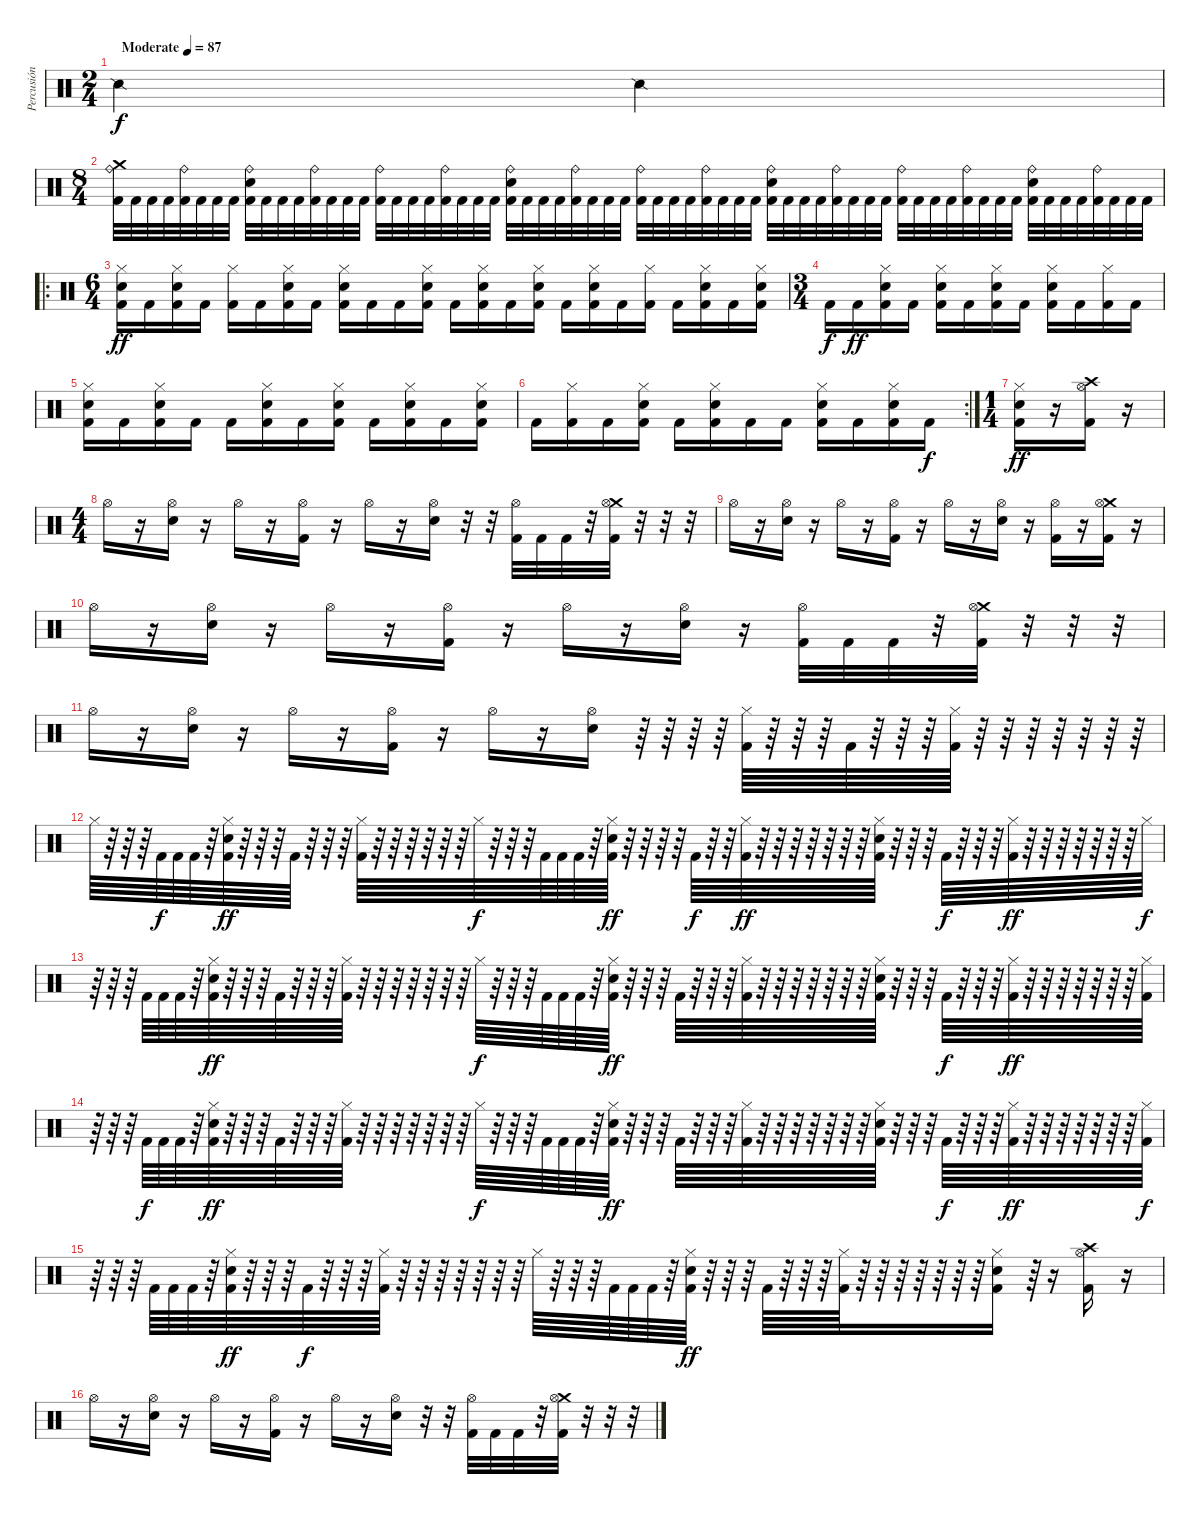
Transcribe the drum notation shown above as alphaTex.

\track ("Percusión" "Percusión") {instrument percussion}
\staff {score}
\articulation defaults
\ts (2 4)
\tempo (87 "Moderate")
\clef neutral
\ks c "Snare (side stick) 2".4{dy f} "Snare (side stick) 2".4
|
\ts (8 4)
("Crash medium (hit)" "Ride (bell)" "Kick (hit) 2").32 "Kick (hit) 2".32 "Kick (hit) 2".32 "Kick (hit) 2".32 ("Ride (bell)" "Kick (hit) 2").32 "Kick (hit) 2".32 "Kick (hit) 2".32 "Kick (hit) 2".32 ("Ride (bell)" "Electric Snare (hit)" "Kick (hit) 2").32 "Kick (hit) 2".32 "Kick (hit) 2".32 "Kick (hit) 2".32 ("Ride (bell)" "Kick (hit) 2").32 "Kick (hit) 2".32 "Kick (hit) 2".32 "Kick (hit) 2".32 ("Ride (bell)" "Kick (hit) 2").32 "Kick (hit) 2".32 "Kick (hit) 2".32 "Kick (hit) 2".32 ("Ride (bell)" "Kick (hit) 2").32 "Kick (hit) 2".32 "Kick (hit) 2".32 "Kick (hit) 2".32 ("Ride (bell)" "Electric Snare (hit)" "Kick (hit) 2").32 "Kick (hit) 2".32 "Kick (hit) 2".32 "Kick (hit) 2".32 ("Ride (bell)" "Kick (hit) 2").32 "Kick (hit) 2".32 "Kick (hit) 2".32 "Kick (hit) 2".32 ("Ride (bell)" "Kick (hit) 2").32 "Kick (hit) 2".32 "Kick (hit) 2".32 "Kick (hit) 2".32 ("Ride (bell)" "Kick (hit) 2").32 "Kick (hit) 2".32 "Kick (hit) 2".32 "Kick (hit) 2".32 ("Ride (bell)" "Electric Snare (hit)" "Kick (hit) 2").32 "Kick (hit) 2".32 "Kick (hit) 2".32 "Kick (hit) 2".32 ("Ride (bell)" "Kick (hit) 2").32 "Kick (hit) 2".32 "Kick (hit) 2".32 "Kick (hit) 2".32 ("Ride (bell)" "Kick (hit) 2").32 "Kick (hit) 2".32 "Kick (hit) 2".32 "Kick (hit) 2".32 ("Ride (bell)" "Kick (hit) 2").32 "Kick (hit) 2".32 "Kick (hit) 2".32 "Kick (hit) 2".32 ("Ride (bell)" "Electric Snare (hit)" "Kick (hit) 2").32 "Kick (hit) 2".32 "Kick (hit) 2".32 "Kick (hit) 2".32 ("Ride (bell)" "Kick (hit) 2").32 "Kick (hit) 2".32 "Kick (hit) 2".32 "Kick (hit) 2".32 |
\ro
\ts (6 4)
("Hi-Hat (closed)" "Electric Snare (hit)" "Kick (hit) 2").16{dy ff} "Kick (hit) 2".16 ("Hi-Hat (closed)" "Electric Snare (hit)" "Kick (hit) 2").16 "Kick (hit) 2".16 ("Hi-Hat (closed)" "Kick (hit) 2").16 "Kick (hit) 2".16 ("Hi-Hat (closed)" "Electric Snare (hit)" "Kick (hit) 2").16 "Kick (hit) 2".16 ("Hi-Hat (closed)" "Electric Snare (hit)" "Kick (hit) 2").16 "Kick (hit) 2".16 "Kick (hit) 2".16 ("Hi-Hat (closed)" "Electric Snare (hit)" "Kick (hit) 2").16 "Kick (hit) 2".16 ("Hi-Hat (closed)" "Electric Snare (hit)" "Kick (hit) 2").16 "Kick (hit) 2".16 ("Hi-Hat (closed)" "Electric Snare (hit)" "Kick (hit) 2").16 "Kick (hit) 2".16 ("Hi-Hat (closed)" "Electric Snare (hit)" "Kick (hit) 2").16 "Kick (hit) 2".16 ("Hi-Hat (closed)" "Kick (hit) 2").16 "Kick (hit) 2".16 ("Hi-Hat (closed)" "Electric Snare (hit)" "Kick (hit) 2").16 "Kick (hit) 2".16 ("Hi-Hat (closed)" "Electric Snare (hit)" "Kick (hit) 2").16 |
\ts (3 4)
"Kick (hit) 2".16{dy f} "Kick (hit) 2".16{dy ff} ("Hi-Hat (closed)" "Electric Snare (hit)" "Kick (hit) 2").16 "Kick (hit) 2".16 ("Hi-Hat (closed)" "Electric Snare (hit)" "Kick (hit) 2").16 "Kick (hit) 2".16 ("Hi-Hat (closed)" "Electric Snare (hit)" "Kick (hit) 2").16 "Kick (hit) 2".16 ("Hi-Hat (closed)" "Electric Snare (hit)" "Kick (hit) 2").16 "Kick (hit) 2".16 ("Hi-Hat (closed)" "Kick (hit) 2").16 "Kick (hit) 2".16 |
("Hi-Hat (closed)" "Electric Snare (hit)" "Kick (hit) 2").16 "Kick (hit) 2".16 ("Hi-Hat (closed)" "Electric Snare (hit)" "Kick (hit) 2").16 "Kick (hit) 2".16 "Kick (hit) 2".16 ("Hi-Hat (closed)" "Electric Snare (hit)" "Kick (hit) 2").16 "Kick (hit) 2".16 ("Hi-Hat (closed)" "Electric Snare (hit)" "Kick (hit) 2").16 "Kick (hit) 2".16 ("Hi-Hat (closed)" "Electric Snare (hit)" "Kick (hit) 2").16 "Kick (hit) 2".16 ("Hi-Hat (closed)" "Electric Snare (hit)" "Kick (hit) 2").16 |
\rc 2 "Kick (hit) 2".16
("Hi-Hat (closed)" "Kick (hit) 2").16 "Kick (hit) 2".16 ("Hi-Hat (closed)" "Electric Snare (hit)" "Kick (hit) 2").16 "Kick (hit) 2".16 ("Hi-Hat (closed)" "Electric Snare (hit)" "Kick (hit) 2").16 "Kick (hit) 2".16 "Kick (hit) 2".16 ("Hi-Hat (closed)" "Electric Snare (hit)" "Kick (hit) 2").16 "Kick (hit) 2".16 ("Hi-Hat (closed)" "Electric Snare (hit)" "Kick (hit) 2").16 "Kick (hit) 2".16{dy f} |
\ts (1 4)
("Hi-Hat (closed)" "Electric Snare (hit)" "Kick (hit) 2").16{dy ff} r.16 ("Crash high (hit)" "Hi-Hat (open)" "Kick (hit) 2").16 r.16 |
\ts (4 4)
"Hi-Hat (open)".16 r.16 ("Hi-Hat (open)" "Electric Snare (hit)").16 r.16 "Hi-Hat (open)".16 r.16 ("Hi-Hat (open)" "Kick (hit) 2").16 r.16 "Hi-Hat (open)".16 r.16 ("Hi-Hat (open)" "Electric Snare (hit)").16 r.32 r.32 ("Hi-Hat (open)" "Kick (hit) 2").32 "Kick (hit) 2".32 "Kick (hit) 2".32 r.32 ("Crash medium (hit)" "Hi-Hat (open)" "Kick (hit) 2").32 r.32 r.32 r.32 |
"Hi-Hat (open)".16 r.16 ("Hi-Hat (open)" "Electric Snare (hit)").16 r.16 "Hi-Hat (open)".16 r.16 ("Hi-Hat (open)" "Kick (hit) 2").16 r.16 "Hi-Hat (open)".16 r.16 ("Hi-Hat (open)" "Electric Snare (hit)").16 r.16 ("Hi-Hat (open)" "Kick (hit) 2").16 r.16 ("Crash medium (hit)" "Hi-Hat (open)" "Kick (hit) 2").16 r.16 |
"Hi-Hat (open)".16 r.16 ("Hi-Hat (open)" "Electric Snare (hit)").16 r.16 "Hi-Hat (open)".16 r.16 ("Hi-Hat (open)" "Kick (hit) 2").16 r.16 "Hi-Hat (open)".16 r.16 ("Hi-Hat (open)" "Electric Snare (hit)").16 r.16 ("Hi-Hat (open)" "Kick (hit) 2").32 "Kick (hit) 2".32 "Kick (hit) 2".32 r.32 ("Crash medium (hit)" "Hi-Hat (open)" "Kick (hit) 2").32 r.32 r.32 r.32 |
"Hi-Hat (open)".16 r.16 ("Hi-Hat (open)" "Electric Snare (hit)").16 r.16 "Hi-Hat (open)".16 r.16 ("Hi-Hat (open)" "Kick (hit) 2").16 r.16 "Hi-Hat (open)".16 r.16 ("Hi-Hat (open)" "Electric Snare (hit)").16 r.64 r.64 r.64 r.64 ("Hi-Hat (closed)" "Kick (hit) 2").64 r.64 r.64 r.64 "Kick (hit) 2".64 r.64 r.64 r.64 ("Hi-Hat (closed)" "Kick (hit) 2").64 r.64 r.64 r.64 r.64 r.64 r.64 r.64 |
"Hi-Hat (closed)".64 r.64 r.64 r.64 "Kick (hit) 2".64{dy f} "Kick (hit) 2".64 "Kick (hit) 2".64 r.64 ("Hi-Hat (closed)" "Electric Snare (hit)" "Kick (hit) 2").64{dy ff} r.64 r.64 r.64 "Kick (hit) 2".64 r.64 r.64 r.64 ("Hi-Hat (closed)" "Kick (hit) 2").64 r.64 r.64 r.64 r.64 r.64 r.64 "Hi-Hat (closed)".64{dy f} r.64 r.64 r.64 "Kick (hit) 2".64 "Kick (hit) 2".64 "Kick (hit) 2".64 r.64 ("Hi-Hat (closed)" "Electric Snare (hit)" "Kick (hit) 2").64{dy ff} r.64 r.64 r.64 r.64 "Kick (hit) 2".64{dy f} r.64 r.64 ("Hi-Hat (closed)" "Kick (hit) 2").64{dy ff} r.64 r.64 r.64 r.64 r.64 r.64 r.64 ("Hi-Hat (closed)" "Electric Snare (hit)" "Kick (hit) 2").64 r.64 r.64 r.64 "Kick (hit) 2".64{dy f} r.64 r.64 r.64 ("Hi-Hat (closed)" "Kick (hit) 2").64{dy ff} r.64 r.64 r.64 r.64 r.64 r.64 r.64 "Hi-Hat (closed)".64{dy f} |
r.64 r.64 r.64 "Kick (hit) 2".64 "Kick (hit) 2".64 "Kick (hit) 2".64 r.64 ("Hi-Hat (closed)" "Electric Snare (hit)" "Kick (hit) 2").64{dy ff} r.64 r.64 r.64 "Kick (hit) 2".64 r.64 r.64 r.64 ("Hi-Hat (closed)" "Kick (hit) 2").64 r.64 r.64 r.64 r.64 r.64 r.64 r.64 "Hi-Hat (closed)".64{dy f} r.64 r.64 r.64 "Kick (hit) 2".64 "Kick (hit) 2".64 "Kick (hit) 2".64 r.64 ("Hi-Hat (closed)" "Electric Snare (hit)" "Kick (hit) 2").64{dy ff} r.64 r.64 r.64 "Kick (hit) 2".64 r.64 r.64 r.64 ("Hi-Hat (closed)" "Kick (hit) 2").64 r.64 r.64 r.64 r.64 r.64 r.64 r.64 ("Hi-Hat (closed)" "Electric Snare (hit)" "Kick (hit) 2").64 r.64 r.64 r.64 "Kick (hit) 2".64{dy f} r.64 r.64 r.64 ("Hi-Hat (closed)" "Kick (hit) 2").64{dy ff} r.64 r.64 r.64 r.64 r.64 r.64 r.64 ("Hi-Hat (closed)" "Kick (hit) 2").64 |
r.64 r.64 r.64 "Kick (hit) 2".64{dy f} "Kick (hit) 2".64 "Kick (hit) 2".64 r.64 ("Hi-Hat (closed)" "Electric Snare (hit)" "Kick (hit) 2").64{dy ff} r.64 r.64 r.64 "Kick (hit) 2".64 r.64 r.64 r.64 ("Hi-Hat (closed)" "Kick (hit) 2").64 r.64 r.64 r.64 r.64 r.64 r.64 r.64 "Hi-Hat (closed)".64{dy f} r.64 r.64 r.64 "Kick (hit) 2".64 "Kick (hit) 2".64 "Kick (hit) 2".64 r.64 ("Hi-Hat (closed)" "Electric Snare (hit)" "Kick (hit) 2").64{dy ff} r.64 r.64 r.64 "Kick (hit) 2".64 r.64 r.64 r.64 ("Hi-Hat (closed)" "Kick (hit) 2").64 r.64 r.64 r.64 r.64 r.64 r.64 r.64 ("Hi-Hat (closed)" "Electric Snare (hit)" "Kick (hit) 2").64 r.64 r.64 r.64 "Kick (hit) 2".64{dy f} r.64 r.64 r.64 ("Hi-Hat (closed)" "Kick (hit) 2").64{dy ff} r.64 r.64 r.64 r.64 r.64 r.64 r.64 ("Hi-Hat (closed)" "Kick (hit) 2").64{dy f} |
r.64 r.64 r.64 "Kick (hit) 2".64 "Kick (hit) 2".64 "Kick (hit) 2".64 r.64 ("Hi-Hat (closed)" "Electric Snare (hit)" "Kick (hit) 2").64{dy ff} r.64 r.64 r.64 "Kick (hit) 2".64{dy f} r.64 r.64 r.64 ("Hi-Hat (closed)" "Kick (hit) 2").64 r.64 r.64 r.64 r.64 r.64 r.64 r.64 "Hi-Hat (closed)".64 r.64 r.64 r.64 "Kick (hit) 2".64 "Kick (hit) 2".64 "Kick (hit) 2".64 r.64 ("Hi-Hat (closed)" "Electric Snare (hit)" "Kick (hit) 2").64{dy ff} r.64 r.64 r.64 "Kick (hit) 2".64 r.64 r.64 r.64 ("Hi-Hat (closed)" "Kick (hit) 2").64 r.64 r.64 r.64 r.64 r.64 r.64 r.64 ("Hi-Hat (closed)" "Electric Snare (hit)" "Kick (hit) 2").16 r.64 r.16 ("Crash high (hit)" "Hi-Hat (open)" "Kick (hit) 2").16 r.16 |
"Hi-Hat (open)".16 r.16 ("Hi-Hat (open)" "Electric Snare (hit)").16 r.16 "Hi-Hat (open)".16 r.16 ("Hi-Hat (open)" "Kick (hit) 2").16 r.16 "Hi-Hat (open)".16 r.16 ("Hi-Hat (open)" "Electric Snare (hit)").16 r.32 r.32 ("Hi-Hat (open)" "Kick (hit) 2").32 "Kick (hit) 2".32 "Kick (hit) 2".32 r.32 ("Crash medium (hit)" "Hi-Hat (open)" "Kick (hit) 2").32 r.32 r.32 r.32
